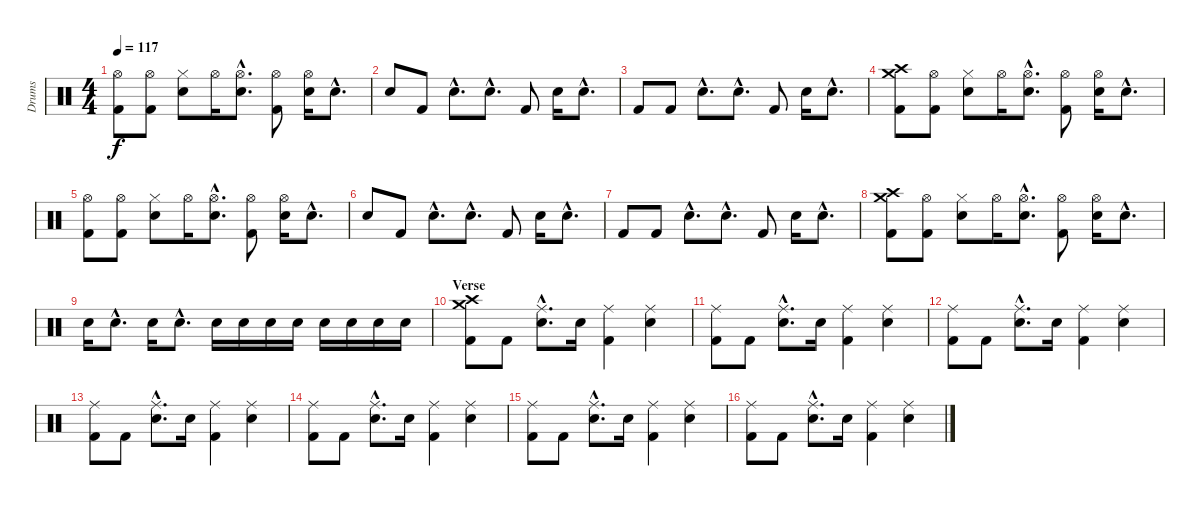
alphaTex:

\track ("Drums" "Drums") {instrument percussion}
\staff {score}
\articulation defaults
\ts (4 4)
\tempo 117
\clef neutral
\ks c
("Hi-Hat (open)" "Kick (hit) 2").8{dy f} ("Hi-Hat (open)" "Kick (hit) 2").8 ("Hi-Hat (closed)" "Electric Snare (hit)").8 "Hi-Hat (open)".16 ("Hi-Hat (open)"{hac} "Electric Snare (hit)"{hac}).8{d} ("Hi-Hat (open)" "Kick (hit) 2").8 ("Hi-Hat (open)" "Electric Snare (hit)").16 "Electric Snare (hit)"{hac}.8{d} |
"Electric Snare (hit)".8 "Kick (hit) 2".8{volume 10} "Electric Snare (hit)"{hac}.8{d} "Electric Snare (hit)"{hac}.8{d} "Kick (hit) 2".8 "Electric Snare (hit)".16 "Electric Snare (hit)"{hac}.8{d} |
"Kick (hit) 2".8 "Kick (hit) 2".8 "Electric Snare (hit)"{hac}.8{d} "Electric Snare (hit)"{hac}.8{d} "Kick (hit) 2".8 "Electric Snare (hit)".16 "Electric Snare (hit)"{hac}.8{d} |
("Crash medium (hit)" "Crash high (hit)" "Kick (hit) 2").8{volume 14} ("Hi-Hat (open)" "Kick (hit) 2").8 ("Hi-Hat (closed)" "Electric Snare (hit)").8 "Hi-Hat (open)".16 ("Hi-Hat (open)"{hac} "Electric Snare (hit)"{hac}).8{d} ("Hi-Hat (open)" "Kick (hit) 2").8 ("Hi-Hat (open)" "Electric Snare (hit)").16 "Electric Snare (hit)"{hac}.8{d} |
("Hi-Hat (open)" "Kick (hit) 2").8 ("Hi-Hat (open)" "Kick (hit) 2").8 ("Hi-Hat (closed)" "Electric Snare (hit)").8 "Hi-Hat (open)".16 ("Hi-Hat (open)"{hac} "Electric Snare (hit)"{hac}).8{d} ("Hi-Hat (open)" "Kick (hit) 2").8 ("Hi-Hat (open)" "Electric Snare (hit)").16 "Electric Snare (hit)"{hac}.8{d} |
"Electric Snare (hit)".8 "Kick (hit) 2".8{volume 10} "Electric Snare (hit)"{hac}.8{d} "Electric Snare (hit)"{hac}.8{d} "Kick (hit) 2".8 "Electric Snare (hit)".16 "Electric Snare (hit)"{hac}.8{d} |
"Kick (hit) 2".8 "Kick (hit) 2".8 "Electric Snare (hit)"{hac}.8{d} "Electric Snare (hit)"{hac}.8{d} "Kick (hit) 2".8 "Electric Snare (hit)".16 "Electric Snare (hit)"{hac}.8{d} |
("Crash medium (hit)" "Crash high (hit)" "Kick (hit) 2").8{volume 14} ("Hi-Hat (open)" "Kick (hit) 2").8 ("Hi-Hat (closed)" "Electric Snare (hit)").8 "Hi-Hat (open)".16 ("Hi-Hat (open)"{hac} "Electric Snare (hit)"{hac}).8{d} ("Hi-Hat (open)" "Kick (hit) 2").8 ("Hi-Hat (open)" "Electric Snare (hit)").16 "Electric Snare (hit)"{hac}.8{d} |
"Electric Snare (hit)".16 "Electric Snare (hit)"{hac}.8{d} "Electric Snare (hit)".16 "Electric Snare (hit)"{hac}.8{d} "Electric Snare (hit)".16 "Electric Snare (hit)".16 "Electric Snare (hit)".16 "Electric Snare (hit)".16 "Electric Snare (hit)".16 "Electric Snare (hit)".16 "Electric Snare (hit)".16 "Electric Snare (hit)".16 |
\section ("" "Verse")
("Crash medium (hit)" "Crash high (hit)" "Kick (hit) 2").8 "Kick (hit) 2".8 ("Ride (middle)"{hac} "Electric Snare (hit)"{hac}).8{d} "Electric Snare (hit)".16 ("Ride (middle)" "Kick (hit) 2").4 ("Ride (middle)" "Electric Snare (hit)").4 |
("Ride (middle)" "Kick (hit) 2").8 "Kick (hit) 2".8 ("Ride (middle)"{hac} "Electric Snare (hit)"{hac}).8{d} "Electric Snare (hit)".16 ("Ride (middle)" "Kick (hit) 2").4 ("Ride (middle)" "Electric Snare (hit)").4 |
("Ride (middle)" "Kick (hit) 2").8 "Kick (hit) 2".8 ("Ride (middle)"{hac} "Electric Snare (hit)"{hac}).8{d} "Electric Snare (hit)".16 ("Ride (middle)" "Kick (hit) 2").4 ("Ride (middle)" "Electric Snare (hit)").4 |
("Ride (middle)" "Kick (hit) 2").8 "Kick (hit) 2".8 ("Ride (middle)"{hac} "Electric Snare (hit)"{hac}).8{d} "Electric Snare (hit)".16 ("Ride (middle)" "Kick (hit) 2").4 ("Ride (middle)" "Electric Snare (hit)").4 |
("Ride (middle)" "Kick (hit) 2").8 "Kick (hit) 2".8 ("Ride (middle)"{hac} "Electric Snare (hit)"{hac}).8{d} "Electric Snare (hit)".16 ("Ride (middle)" "Kick (hit) 2").4 ("Ride (middle)" "Electric Snare (hit)").4 |
("Ride (middle)" "Kick (hit) 2").8 "Kick (hit) 2".8 ("Ride (middle)"{hac} "Electric Snare (hit)"{hac}).8{d} "Electric Snare (hit)".16 ("Ride (middle)" "Kick (hit) 2").4 ("Ride (middle)" "Electric Snare (hit)").4 |
("Ride (middle)" "Kick (hit) 2").8 "Kick (hit) 2".8 ("Ride (middle)"{hac} "Electric Snare (hit)"{hac}).8{d} "Electric Snare (hit)".16 ("Ride (middle)" "Kick (hit) 2").4 ("Ride (middle)" "Electric Snare (hit)").4
